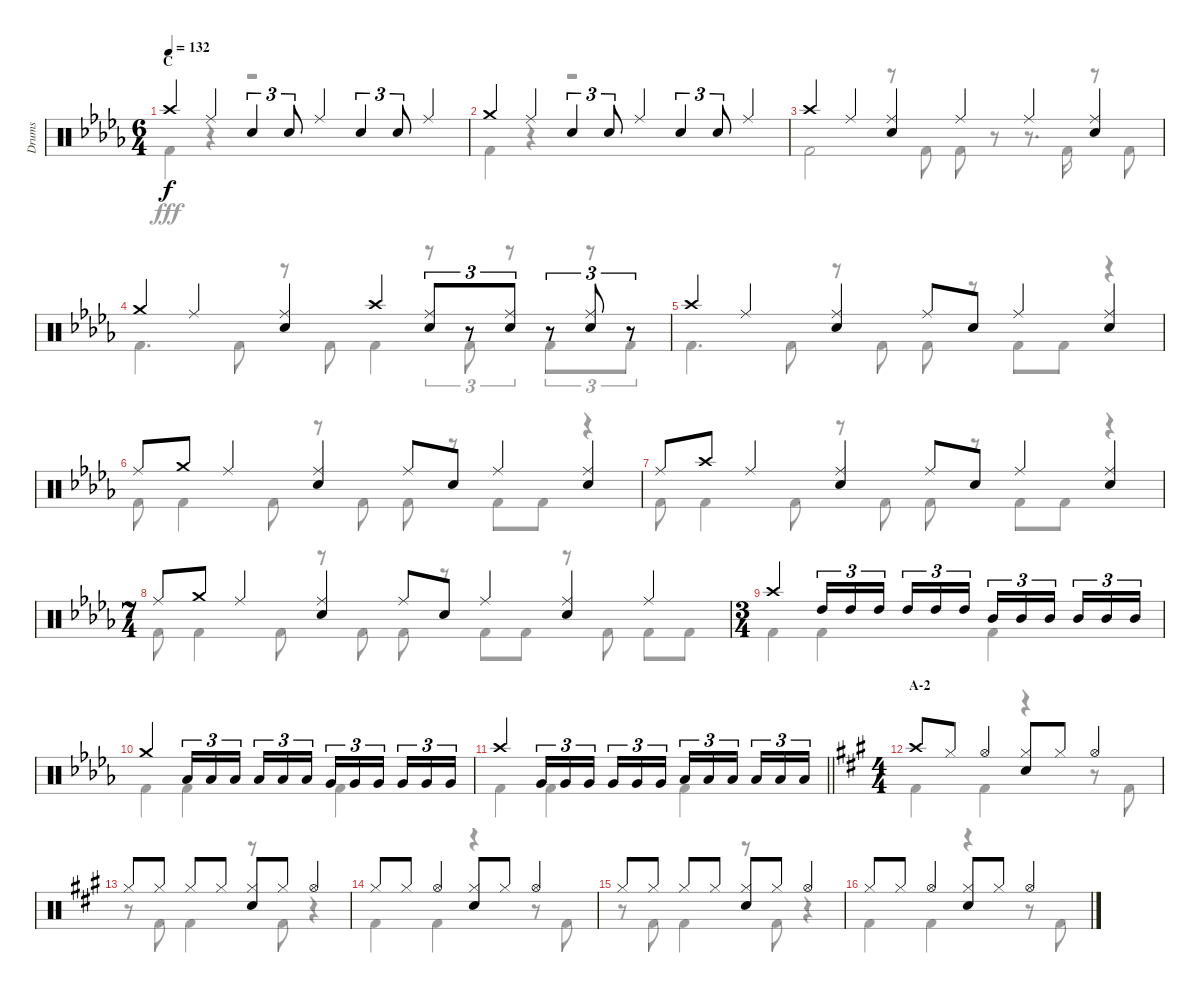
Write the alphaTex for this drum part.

\track ("Drums" "Drums") {instrument percussion}
\staff {score}
\articulation defaults
\voice
\ts (6 4)
\section ("" "C")
\tempo 132
\clef neutral
\ks db "Crash high (hit)".4{dy f} "Ride (middle)".4 "Snare (hit) 2".4{tu (3 2)} "Snare (hit) 2".8{tu (3 2)} "Ride (middle)".4 "Snare (hit) 2".4{tu (3 2)} "Snare (hit) 2".8{tu (3 2)} "Ride (middle)".4
|
"Crash medium (hit)".4 "Ride (middle)".4 "Snare (hit) 2".4{tu (3 2)} "Snare (hit) 2".8{tu (3 2)} "Ride (middle)".4 "Snare (hit) 2".4{tu (3 2)} "Snare (hit) 2".8{tu (3 2)} "Ride (middle)".4 |
"Crash high (hit)".4 "Ride (middle)".4 ("Ride (middle)" "Snare (hit) 2").4 "Ride (middle)".4 "Ride (middle)".4 ("Ride (middle)" "Snare (hit) 2").4 |
"Crash medium (hit)".4 "Ride (middle)".4 ("Ride (middle)" "Snare (hit) 2").4 "Crash high (hit)".4 ("Ride (middle)" "Snare (hit) 2").8{tu (3 2)} r.8{tu (3 2)} ("Ride (middle)" "Snare (hit) 2").8{tu (3 2)} r.8{tu (3 2)} ("Ride (middle)" "Snare (hit) 2").8{tu (3 2)} r.8{tu (3 2)} |
"Crash high (hit)".4 "Ride (middle)".4 ("Ride (middle)" "Snare (hit) 2").4 "Ride (middle)".8 "Snare (hit) 2".8 "Ride (middle)".4 ("Ride (middle)" "Snare (hit) 2").4 |
"Ride (middle)".8 "Crash medium (hit)".8 "Ride (middle)".4 ("Ride (middle)" "Snare (hit) 2").4 "Ride (middle)".8 "Snare (hit) 2".8 "Ride (middle)".4 ("Ride (middle)" "Snare (hit) 2").4 |
"Ride (middle)".8 "Crash high (hit)".8 "Ride (middle)".4 ("Ride (middle)" "Snare (hit) 2").4 "Ride (middle)".8 "Snare (hit) 2".8 "Ride (middle)".4 ("Ride (middle)" "Snare (hit) 2").4 |
\ts (7 4)
"Ride (middle)".8 "Crash medium (hit)".8 "Ride (middle)".4 ("Ride (middle)" "Snare (hit) 2").4 "Ride (middle)".8 "Snare (hit) 2".8 "Ride (middle)".4 ("Ride (middle)" "Snare (hit) 2").4 "Ride (middle)".4 |
\ts (3 4)
"Crash high (hit)".4 "High Tom (hit)".16{tu (3 2)} "High Tom (hit)".16{tu (3 2)} "High Tom (hit)".16{tu (3 2) beam splitsecondary} "High Tom (hit)".16{tu (3 2)} "High Tom (hit)".16{tu (3 2)} "High Tom (hit)".16{tu (3 2)} "Mid Tom (hit)".16{tu (3 2)} "Mid Tom (hit)".16{tu (3 2)} "Mid Tom (hit)".16{tu (3 2) beam splitsecondary} "Mid Tom (hit)".16{tu (3 2)} "Mid Tom (hit)".16{tu (3 2)} "Mid Tom (hit)".16{tu (3 2)} |
"Crash medium (hit)".4 "Low Tom (hit)".16{tu (3 2)} "Low Tom (hit)".16{tu (3 2)} "Low Tom (hit)".16{tu (3 2) beam splitsecondary} "Low Tom (hit)".16{tu (3 2)} "Low Tom (hit)".16{tu (3 2)} "Low Tom (hit)".16{tu (3 2)} "Very Low Tom (hit)".16{tu (3 2)} "Very Low Tom (hit)".16{tu (3 2)} "Very Low Tom (hit)".16{tu (3 2) beam splitsecondary} "Very Low Tom (hit)".16{tu (3 2)} "Very Low Tom (hit)".16{tu (3 2)} "Very Low Tom (hit)".16{tu (3 2)} |
\barLineRight lightlight "Crash high (hit)".4 "Very Low Tom (hit)".16{tu (3 2)} "Very Low Tom (hit)".16{tu (3 2)} "Very Low Tom (hit)".16{tu (3 2) beam splitsecondary} "Very Low Tom (hit)".16{tu (3 2)} "Very Low Tom (hit)".16{tu (3 2)} "Very Low Tom (hit)".16{tu (3 2)} "Low Floor Tom (hit)".16{tu (3 2)} "Low Floor Tom (hit)".16{tu (3 2)} "Low Floor Tom (hit)".16{tu (3 2) beam splitsecondary} "Low Floor Tom (hit)".16{tu (3 2)} "Low Floor Tom (hit)".16{tu (3 2)} "Low Floor Tom (hit)".16{tu (3 2)}
|
\ts (4 4)
\section ("" "A-2")
\ks a "Crash high (hit)".8 "Hi-Hat (closed)".8 "Hi-Hat (open)".4
("Hi-Hat (closed)" "Snare (hit) 2").8 "Hi-Hat (closed)".8 "Hi-Hat (open)".4 |
"Hi-Hat (closed)".8 "Hi-Hat (closed)".8 "Hi-Hat (closed)".8 "Hi-Hat (closed)".8 ("Hi-Hat (closed)" "Snare (hit) 2").8 "Hi-Hat (closed)".8 "Hi-Hat (open)".4 |
"Hi-Hat (closed)".8 "Hi-Hat (closed)".8 "Hi-Hat (open)".4 ("Hi-Hat (closed)" "Snare (hit) 2").8 "Hi-Hat (closed)".8 "Hi-Hat (open)".4 |
"Hi-Hat (closed)".8 "Hi-Hat (closed)".8 "Hi-Hat (closed)".8 "Hi-Hat (closed)".8 ("Hi-Hat (closed)" "Snare (hit) 2").8 "Hi-Hat (closed)".8 "Hi-Hat (open)".4 |
"Hi-Hat (closed)".8 "Hi-Hat (closed)".8 "Hi-Hat (open)".4 ("Hi-Hat (closed)" "Snare (hit) 2").8 "Hi-Hat (closed)".8 "Hi-Hat (open)".4
\voice
\clef neutral
\ottava regular
\simile none
\ks db "Kick (hit) 2".4{dy fff}
r.4 r.1 |
"Kick (hit) 2".4 r.4 r.1 |
"Kick (hit) 2".2 r.8 "Kick (hit) 2".8 "Kick (hit) 2".8 r.8 r.8{d} "Kick (hit) 2".16 r.8 "Kick (hit) 2".8 |
"Kick (hit) 2".4{d} "Kick (hit) 2".8 r.8 "Kick (hit) 2".8 "Kick (hit) 2".4 r.8{tu (3 2)} "Kick (hit) 2".8{tu (3 2)} r.8{tu (3 2)} "Kick (hit) 2".8{tu (3 2)} r.8{tu (3 2)} "Kick (hit) 2".8{tu (3 2)} |
"Kick (hit) 2".4{d} "Kick (hit) 2".8 r.8 "Kick (hit) 2".8 "Kick (hit) 2".8 r.8 "Kick (hit) 2".8 "Kick (hit) 2".8 r.4 |
"Kick (hit) 2".8 "Kick (hit) 2".4 "Kick (hit) 2".8 r.8 "Kick (hit) 2".8 "Kick (hit) 2".8 r.8 "Kick (hit) 2".8 "Kick (hit) 2".8 r.4 |
"Kick (hit) 2".8 "Kick (hit) 2".4 "Kick (hit) 2".8 r.8 "Kick (hit) 2".8 "Kick (hit) 2".8 r.8 "Kick (hit) 2".8 "Kick (hit) 2".8 r.4 |
"Kick (hit) 2".8 "Kick (hit) 2".4 "Kick (hit) 2".8 r.8 "Kick (hit) 2".8 "Kick (hit) 2".8 r.8 "Kick (hit) 2".8 "Kick (hit) 2".8 r.8 "Kick (hit) 2".8 "Kick (hit) 2".8 "Kick (hit) 2".8 |
"Kick (hit) 2".4 "Kick (hit) 2".4 "Kick (hit) 2".4 |
"Kick (hit) 2".4 "Kick (hit) 2".4 "Kick (hit) 2".4 |
\barLineRight lightlight "Kick (hit) 2".4 "Kick (hit) 2".4 "Kick (hit) 2".4
|
\ks a "Kick (hit) 2".4 "Kick (hit) 2".4
r.4 r.8 "Kick (hit) 2".8 |
r.8 "Kick (hit) 2".8 "Kick (hit) 2".4 r.8 "Kick (hit) 2".8 r.4 |
"Kick (hit) 2".4 "Kick (hit) 2".4 r.4 r.8 "Kick (hit) 2".8 |
r.8 "Kick (hit) 2".8 "Kick (hit) 2".4 r.8 "Kick (hit) 2".8 r.4 |
"Kick (hit) 2".4 "Kick (hit) 2".4 r.4 r.8 "Kick (hit) 2".8
